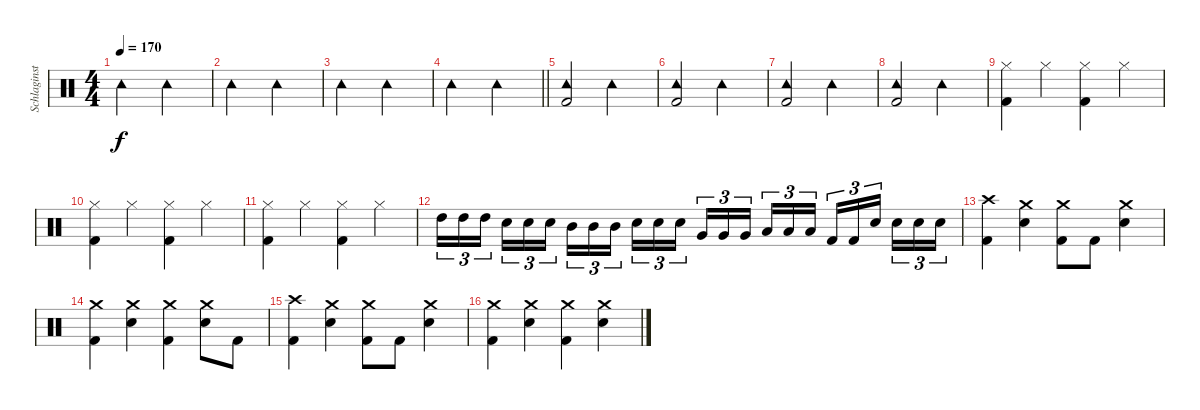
\track ("Schlaginstrumente - Auswahl" "Schlaginst") {instrument percussion}
\staff {score}
\articulation defaults
\ts (4 4)
\tempo 170
\clef neutral
\ks c "Tambourine (hit)".2{dy f} "Tambourine (hit)".2
|
"Tambourine (hit)".2 "Tambourine (hit)".2 |
"Tambourine (hit)".2 "Tambourine (hit)".2 |
\barLineRight lightlight "Tambourine (hit)".2 "Tambourine (hit)".2
|
("Tambourine (hit)" "Kick (hit) 2").2 "Tambourine (hit)".2 |
("Tambourine (hit)" "Kick (hit) 2").2 "Tambourine (hit)".2 |
("Tambourine (hit)" "Kick (hit) 2").2 "Tambourine (hit)".2 |
("Tambourine (hit)" "Kick (hit) 2").2 "Tambourine (hit)".2 |
("Hi-Hat (closed)" "Kick (hit) 2").4 "Hi-Hat (closed)".4 ("Hi-Hat (closed)" "Kick (hit) 2").4 "Hi-Hat (closed)".4 |
("Hi-Hat (closed)" "Kick (hit) 2").4 "Hi-Hat (closed)".4 ("Hi-Hat (closed)" "Kick (hit) 2").4 "Hi-Hat (closed)".4 |
("Hi-Hat (closed)" "Kick (hit) 2").4 "Hi-Hat (closed)".4 ("Hi-Hat (closed)" "Kick (hit) 2").4 "Hi-Hat (closed)".4 |
"High Tom (hit)".16{tu (3 2)} "High Tom (hit)".16{tu (3 2)} "High Tom (hit)".16{tu (3 2) beam splitsecondary} "Snare (hit) 2".16{tu (3 2)} "Snare (hit) 2".16{tu (3 2)} "Snare (hit) 2".16{tu (3 2)} "Mid Tom (hit)".16{tu (3 2)} "Mid Tom (hit)".16{tu (3 2)} "Mid Tom (hit)".16{tu (3 2) beam splitsecondary} "Snare (hit) 2".16{tu (3 2)} "Snare (hit) 2".16{tu (3 2)} "Snare (hit) 2".16{tu (3 2)} "Very Low Tom (hit)".16{tu (3 2)} "Very Low Tom (hit)".16{tu (3 2)} "Very Low Tom (hit)".16{tu (3 2) beam splitsecondary} "Low Floor Tom (hit)".16{tu (3 2)} "Low Floor Tom (hit)".16{tu (3 2)} "Low Floor Tom (hit)".16{tu (3 2)} "Kick (hit) 2".16{tu (3 2)} "Kick (hit) 2".16{tu (3 2)} "Snare (hit) 2".16{tu (3 2) beam splitsecondary} "Snare (hit) 2".16{tu (3 2)} "Snare (hit) 2".16{tu (3 2)} "Snare (hit) 2".16{tu (3 2)} |
("Crash high (hit)" "Kick (hit) 2").4 ("Crash medium (hit)" "Electric Snare (hit)").4 ("Crash medium (hit)" "Kick (hit) 2").8 "Kick (hit) 2".8 ("Crash medium (hit)" "Electric Snare (hit)").4 |
("Crash medium (hit)" "Kick (hit) 2").4 ("Crash medium (hit)" "Electric Snare (hit)").4 ("Crash medium (hit)" "Kick (hit) 2").4 ("Crash medium (hit)" "Electric Snare (hit)").8 "Kick (hit) 2".8 |
("Crash high (hit)" "Kick (hit) 2").4 ("Crash medium (hit)" "Electric Snare (hit)").4 ("Crash medium (hit)" "Kick (hit) 2").8 "Kick (hit) 2".8 ("Crash medium (hit)" "Electric Snare (hit)").4 |
("Crash medium (hit)" "Kick (hit) 2").4 ("Crash medium (hit)" "Electric Snare (hit)").4 ("Crash medium (hit)" "Kick (hit) 2").4 ("Crash medium (hit)" "Electric Snare (hit)").4
